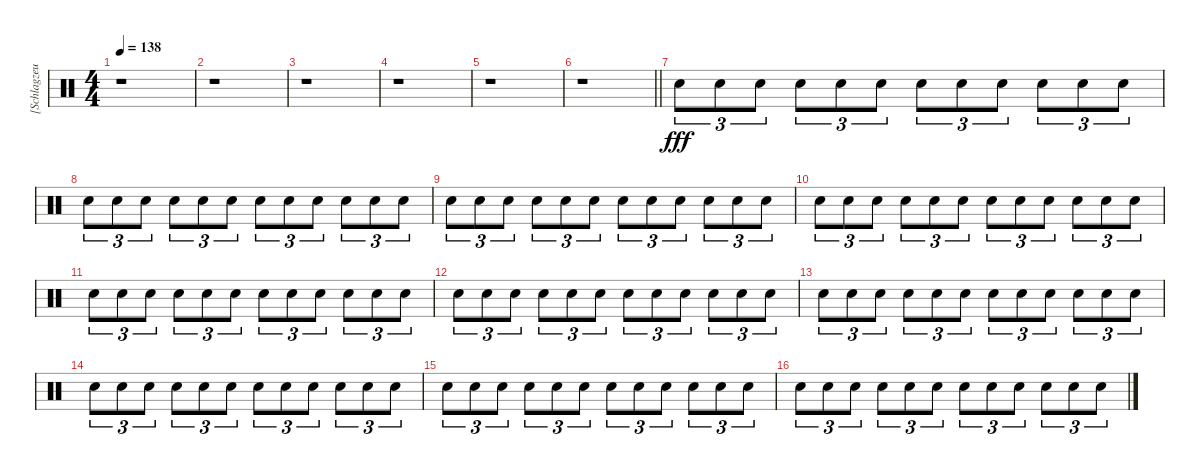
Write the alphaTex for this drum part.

\track ("[Schlagzeug]" "[Schlagzeu") {instrument percussion}
\staff {score}
\articulation defaults
\ts (4 4)
\tempo 138
\clef neutral
\ks c
r.1{dy fff} |
r.1 |
r.1 |
r.1 |
r.1 |
\barLineRight lightlight
r.1{volume 4} |
"Electric Snare (hit)".8{tu (3 2) volume 8} "Electric Snare (hit)".8{tu (3 2)} "Electric Snare (hit)".8{tu (3 2)} "Electric Snare (hit)".8{tu (3 2)} "Electric Snare (hit)".8{tu (3 2)} "Electric Snare (hit)".8{tu (3 2)} "Electric Snare (hit)".8{tu (3 2)} "Electric Snare (hit)".8{tu (3 2)} "Electric Snare (hit)".8{tu (3 2)} "Electric Snare (hit)".8{tu (3 2)} "Electric Snare (hit)".8{tu (3 2)} "Electric Snare (hit)".8{tu (3 2)} |
"Electric Snare (hit)".8{tu (3 2)} "Electric Snare (hit)".8{tu (3 2)} "Electric Snare (hit)".8{tu (3 2)} "Electric Snare (hit)".8{tu (3 2)} "Electric Snare (hit)".8{tu (3 2)} "Electric Snare (hit)".8{tu (3 2)} "Electric Snare (hit)".8{tu (3 2)} "Electric Snare (hit)".8{tu (3 2)} "Electric Snare (hit)".8{tu (3 2)} "Electric Snare (hit)".8{tu (3 2)} "Electric Snare (hit)".8{tu (3 2)} "Electric Snare (hit)".8{tu (3 2)} |
"Electric Snare (hit)".8{tu (3 2) volume 9} "Electric Snare (hit)".8{tu (3 2)} "Electric Snare (hit)".8{tu (3 2)} "Electric Snare (hit)".8{tu (3 2)} "Electric Snare (hit)".8{tu (3 2)} "Electric Snare (hit)".8{tu (3 2)} "Electric Snare (hit)".8{tu (3 2)} "Electric Snare (hit)".8{tu (3 2)} "Electric Snare (hit)".8{tu (3 2)} "Electric Snare (hit)".8{tu (3 2)} "Electric Snare (hit)".8{tu (3 2)} "Electric Snare (hit)".8{tu (3 2)} |
"Electric Snare (hit)".8{tu (3 2)} "Electric Snare (hit)".8{tu (3 2)} "Electric Snare (hit)".8{tu (3 2)} "Electric Snare (hit)".8{tu (3 2)} "Electric Snare (hit)".8{tu (3 2)} "Electric Snare (hit)".8{tu (3 2)} "Electric Snare (hit)".8{tu (3 2)} "Electric Snare (hit)".8{tu (3 2)} "Electric Snare (hit)".8{tu (3 2)} "Electric Snare (hit)".8{tu (3 2)} "Electric Snare (hit)".8{tu (3 2)} "Electric Snare (hit)".8{tu (3 2)} |
"Electric Snare (hit)".8{tu (3 2) volume 10} "Electric Snare (hit)".8{tu (3 2)} "Electric Snare (hit)".8{tu (3 2)} "Electric Snare (hit)".8{tu (3 2)} "Electric Snare (hit)".8{tu (3 2)} "Electric Snare (hit)".8{tu (3 2)} "Electric Snare (hit)".8{tu (3 2)} "Electric Snare (hit)".8{tu (3 2)} "Electric Snare (hit)".8{tu (3 2)} "Electric Snare (hit)".8{tu (3 2)} "Electric Snare (hit)".8{tu (3 2)} "Electric Snare (hit)".8{tu (3 2)} |
"Electric Snare (hit)".8{tu (3 2)} "Electric Snare (hit)".8{tu (3 2)} "Electric Snare (hit)".8{tu (3 2)} "Electric Snare (hit)".8{tu (3 2)} "Electric Snare (hit)".8{tu (3 2)} "Electric Snare (hit)".8{tu (3 2)} "Electric Snare (hit)".8{tu (3 2)} "Electric Snare (hit)".8{tu (3 2)} "Electric Snare (hit)".8{tu (3 2)} "Electric Snare (hit)".8{tu (3 2)} "Electric Snare (hit)".8{tu (3 2)} "Electric Snare (hit)".8{tu (3 2)} |
"Electric Snare (hit)".8{tu (3 2) volume 11} "Electric Snare (hit)".8{tu (3 2)} "Electric Snare (hit)".8{tu (3 2)} "Electric Snare (hit)".8{tu (3 2)} "Electric Snare (hit)".8{tu (3 2)} "Electric Snare (hit)".8{tu (3 2)} "Electric Snare (hit)".8{tu (3 2)} "Electric Snare (hit)".8{tu (3 2)} "Electric Snare (hit)".8{tu (3 2)} "Electric Snare (hit)".8{tu (3 2)} "Electric Snare (hit)".8{tu (3 2)} "Electric Snare (hit)".8{tu (3 2)} |
"Electric Snare (hit)".8{tu (3 2)} "Electric Snare (hit)".8{tu (3 2)} "Electric Snare (hit)".8{tu (3 2)} "Electric Snare (hit)".8{tu (3 2)} "Electric Snare (hit)".8{tu (3 2)} "Electric Snare (hit)".8{tu (3 2)} "Electric Snare (hit)".8{tu (3 2)} "Electric Snare (hit)".8{tu (3 2)} "Electric Snare (hit)".8{tu (3 2)} "Electric Snare (hit)".8{tu (3 2)} "Electric Snare (hit)".8{tu (3 2)} "Electric Snare (hit)".8{tu (3 2)} |
"Electric Snare (hit)".8{tu (3 2) volume 12} "Electric Snare (hit)".8{tu (3 2)} "Electric Snare (hit)".8{tu (3 2)} "Electric Snare (hit)".8{tu (3 2)} "Electric Snare (hit)".8{tu (3 2)} "Electric Snare (hit)".8{tu (3 2)} "Electric Snare (hit)".8{tu (3 2)} "Electric Snare (hit)".8{tu (3 2)} "Electric Snare (hit)".8{tu (3 2)} "Electric Snare (hit)".8{tu (3 2)} "Electric Snare (hit)".8{tu (3 2)} "Electric Snare (hit)".8{tu (3 2)} |
"Electric Snare (hit)".8{tu (3 2)} "Electric Snare (hit)".8{tu (3 2)} "Electric Snare (hit)".8{tu (3 2)} "Electric Snare (hit)".8{tu (3 2)} "Electric Snare (hit)".8{tu (3 2)} "Electric Snare (hit)".8{tu (3 2)} "Electric Snare (hit)".8{tu (3 2)} "Electric Snare (hit)".8{tu (3 2)} "Electric Snare (hit)".8{tu (3 2)} "Electric Snare (hit)".8{tu (3 2)} "Electric Snare (hit)".8{tu (3 2)} "Electric Snare (hit)".8{tu (3 2)}
